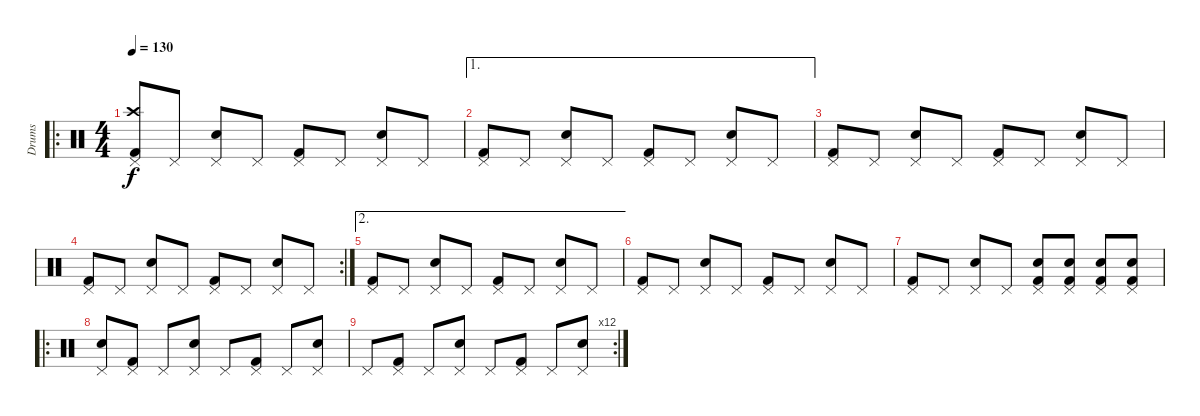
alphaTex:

\track ("Drums" "Drums") {instrument percussion}
\staff {score}
\articulation defaults
\ro
\ts (4 4)
\tempo 130
\clef neutral
\ks c
("Pedal Hi-Hat (hit)" "Crash high (hit)" "Kick (hit) 2").8{dy f} "Pedal Hi-Hat (hit)".8 ("Pedal Hi-Hat (hit)" "Snare (hit) 2").8 "Pedal Hi-Hat (hit)".8 ("Pedal Hi-Hat (hit)" "Kick (hit) 2").8 "Pedal Hi-Hat (hit)".8 ("Pedal Hi-Hat (hit)" "Snare (hit) 2").8 "Pedal Hi-Hat (hit)".8 |
\ae 1
("Pedal Hi-Hat (hit)" "Kick (hit) 2").8 "Pedal Hi-Hat (hit)".8 ("Pedal Hi-Hat (hit)" "Snare (hit) 2").8 "Pedal Hi-Hat (hit)".8 ("Pedal Hi-Hat (hit)" "Kick (hit) 2").8 "Pedal Hi-Hat (hit)".8 ("Pedal Hi-Hat (hit)" "Snare (hit) 2").8 "Pedal Hi-Hat (hit)".8 |
("Pedal Hi-Hat (hit)" "Kick (hit) 2").8 "Pedal Hi-Hat (hit)".8 ("Pedal Hi-Hat (hit)" "Snare (hit) 2").8 "Pedal Hi-Hat (hit)".8 ("Pedal Hi-Hat (hit)" "Kick (hit) 2").8 "Pedal Hi-Hat (hit)".8 ("Pedal Hi-Hat (hit)" "Snare (hit) 2").8 "Pedal Hi-Hat (hit)".8 |
\rc 2
("Pedal Hi-Hat (hit)" "Kick (hit) 2").8 "Pedal Hi-Hat (hit)".8 ("Pedal Hi-Hat (hit)" "Snare (hit) 2").8 "Pedal Hi-Hat (hit)".8 ("Pedal Hi-Hat (hit)" "Kick (hit) 2").8 "Pedal Hi-Hat (hit)".8 ("Pedal Hi-Hat (hit)" "Snare (hit) 2").8 "Pedal Hi-Hat (hit)".8 |
\ae 2
("Pedal Hi-Hat (hit)" "Kick (hit) 2").8 "Pedal Hi-Hat (hit)".8 ("Pedal Hi-Hat (hit)" "Snare (hit) 2").8 "Pedal Hi-Hat (hit)".8 ("Pedal Hi-Hat (hit)" "Kick (hit) 2").8 "Pedal Hi-Hat (hit)".8 ("Pedal Hi-Hat (hit)" "Snare (hit) 2").8 "Pedal Hi-Hat (hit)".8 |
("Pedal Hi-Hat (hit)" "Kick (hit) 2").8 "Pedal Hi-Hat (hit)".8 ("Pedal Hi-Hat (hit)" "Snare (hit) 2").8 "Pedal Hi-Hat (hit)".8 ("Pedal Hi-Hat (hit)" "Kick (hit) 2").8 "Pedal Hi-Hat (hit)".8 ("Pedal Hi-Hat (hit)" "Snare (hit) 2").8 "Pedal Hi-Hat (hit)".8 |
("Pedal Hi-Hat (hit)" "Kick (hit) 2").8 "Pedal Hi-Hat (hit)".8 ("Pedal Hi-Hat (hit)" "Snare (hit) 2").8 "Pedal Hi-Hat (hit)".8 ("Pedal Hi-Hat (hit)" "Snare (hit) 2" "Kick (hit) 2").8 ("Pedal Hi-Hat (hit)" "Snare (hit) 2" "Kick (hit) 2").8 ("Pedal Hi-Hat (hit)" "Snare (hit) 2" "Kick (hit) 2").8 ("Pedal Hi-Hat (hit)" "Snare (hit) 2" "Kick (hit) 2").8 |
\ro
("Pedal Hi-Hat (hit)" "Snare (hit) 2").8 ("Pedal Hi-Hat (hit)" "Kick (hit) 2").8 "Pedal Hi-Hat (hit)".8 ("Pedal Hi-Hat (hit)" "Snare (hit) 2").8 "Pedal Hi-Hat (hit)".8 ("Pedal Hi-Hat (hit)" "Kick (hit) 2").8 "Pedal Hi-Hat (hit)".8 ("Pedal Hi-Hat (hit)" "Snare (hit) 2").8 |
\rc 12 "Pedal Hi-Hat (hit)".8
("Pedal Hi-Hat (hit)" "Kick (hit) 2").8 "Pedal Hi-Hat (hit)".8 ("Pedal Hi-Hat (hit)" "Snare (hit) 2").8 "Pedal Hi-Hat (hit)".8 ("Pedal Hi-Hat (hit)" "Kick (hit) 2").8 "Pedal Hi-Hat (hit)".8 ("Pedal Hi-Hat (hit)" "Snare (hit) 2").8
